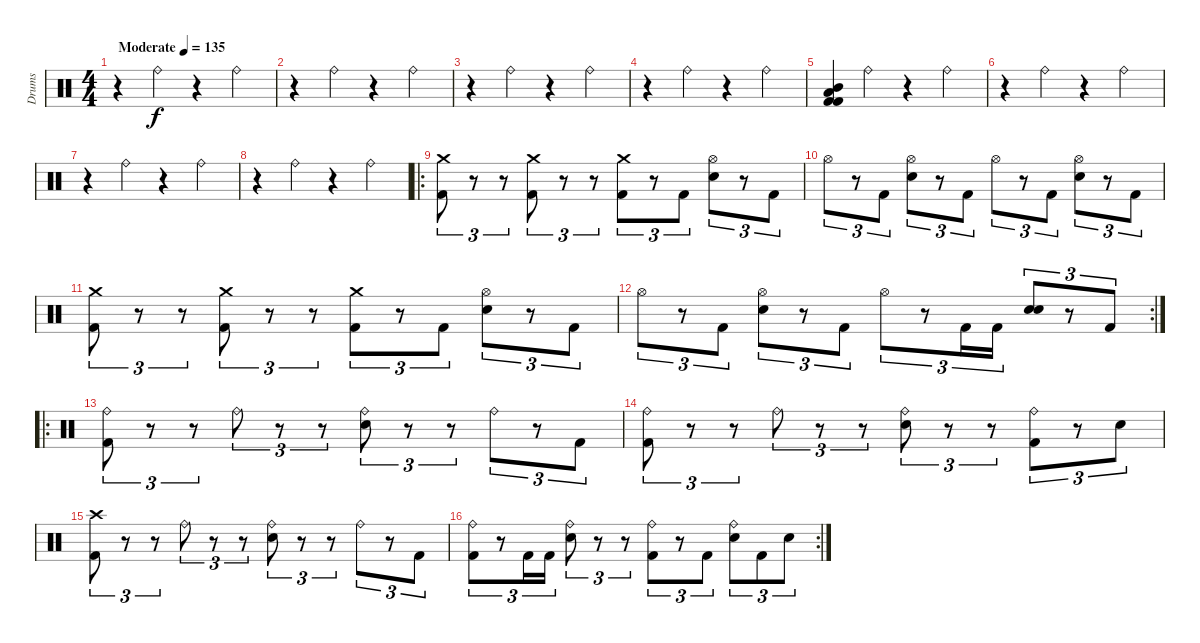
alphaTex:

\track ("Drums" "Drums") {instrument percussion}
\staff {score}
\articulation defaults
\ts (4 4)
\tempo (135 "Moderate")
\clef neutral
\ks c
r.4{dy f} "Ride (bell)".4 r.4 "Ride (bell)".4 |
r.4 "Ride (bell)".4 r.4 "Ride (bell)".4 |
r.4 "Ride (bell)".4 r.4 "Ride (bell)".4 |
r.4 "Ride (bell)".4 r.4 "Ride (bell)".4 |
("Mid Tom (hit)" "Low Tom (hit)" "Kick (hit) 2" "Kick (hit) 2").4{bu 480} "Ride (bell)".4 r.4 "Ride (bell)".4 |
r.4 "Ride (bell)".4 r.4 "Ride (bell)".4 |
r.4 "Ride (bell)".4 r.4 "Ride (bell)".4 |
r.4 "Ride (bell)".4 r.4 "Ride (bell)".4 |
\ro
("Crash medium (hit)" "Kick (hit) 2").8{tu (3 2)} r.8{tu (3 2)} r.8{tu (3 2)} ("Crash medium (hit)" "Kick (hit) 2").8{tu (3 2)} r.8{tu (3 2)} r.8{tu (3 2)} ("Crash medium (hit)" "Kick (hit) 2").8{tu (3 2)} r.8{tu (3 2)} "Kick (hit) 2".8{tu (3 2)} ("Hi-Hat (open)" "Electric Snare (hit)").8{tu (3 2)} r.8{tu (3 2)} "Kick (hit) 2".8{tu (3 2)} |
"Hi-Hat (open)".8{tu (3 2)} r.8{tu (3 2)} "Kick (hit) 2".8{tu (3 2)} ("Hi-Hat (open)" "Electric Snare (hit)").8{tu (3 2)} r.8{tu (3 2)} "Kick (hit) 2".8{tu (3 2)} "Hi-Hat (open)".8{tu (3 2)} r.8{tu (3 2)} "Kick (hit) 2".8{tu (3 2)} ("Hi-Hat (open)" "Electric Snare (hit)").8{tu (3 2)} r.8{tu (3 2)} "Kick (hit) 2".8{tu (3 2)} |
("Crash medium (hit)" "Kick (hit) 2").8{tu (3 2)} r.8{tu (3 2)} r.8{tu (3 2)} ("Crash medium (hit)" "Kick (hit) 2").8{tu (3 2)} r.8{tu (3 2)} r.8{tu (3 2)} ("Crash medium (hit)" "Kick (hit) 2").8{tu (3 2)} r.8{tu (3 2)} "Kick (hit) 2".8{tu (3 2)} ("Hi-Hat (open)" "Electric Snare (hit)").8{tu (3 2)} r.8{tu (3 2)} "Kick (hit) 2".8{tu (3 2)} |
\rc 2 "Hi-Hat (open)".8{tu (3 2)}
r.8{tu (3 2)} "Kick (hit) 2".8{tu (3 2)} ("Hi-Hat (open)" "Electric Snare (hit)").8{tu (3 2)} r.8{tu (3 2)} "Kick (hit) 2".8{tu (3 2)} "Hi-Hat (open)".8{tu (3 2)} r.8{tu (3 2)} "Kick (hit) 2".16{tu (3 2)} "Kick (hit) 2".16{tu (3 2)} ("Electric Snare (hit)" "Electric Snare (hit)").8{tu (3 2) bu 480} r.8{tu (3 2)} "Kick (hit) 2".8{tu (3 2)} |
\ro
("Ride (bell)" "Kick (hit) 2").8{tu (3 2)} r.8{tu (3 2)} r.8{tu (3 2)} "Ride (bell)".8{tu (3 2)} r.8{tu (3 2)} r.8{tu (3 2)} ("Ride (bell)" "Electric Snare (hit)").8{tu (3 2)} r.8{tu (3 2)} r.8{tu (3 2)} "Ride (bell)".8{tu (3 2)} r.8{tu (3 2)} "Kick (hit) 2".8{tu (3 2)} |
("Ride (bell)" "Kick (hit) 2").8{tu (3 2)} r.8{tu (3 2)} r.8{tu (3 2)} "Ride (bell)".8{tu (3 2)} r.8{tu (3 2)} r.8{tu (3 2)} ("Ride (bell)" "Electric Snare (hit)").8{tu (3 2)} r.8{tu (3 2)} r.8{tu (3 2)} ("Ride (bell)" "Kick (hit) 2").8{tu (3 2)} r.8{tu (3 2)} "Electric Snare (hit)".8{tu (3 2)} |
("Crash high (hit)" "Kick (hit) 2").8{tu (3 2)} r.8{tu (3 2)} r.8{tu (3 2)} "Ride (bell)".8{tu (3 2)} r.8{tu (3 2)} r.8{tu (3 2)} ("Ride (bell)" "Electric Snare (hit)").8{tu (3 2)} r.8{tu (3 2)} r.8{tu (3 2)} "Ride (bell)".8{tu (3 2)} r.8{tu (3 2)} "Kick (hit) 2".8{tu (3 2)} |
\rc 2
("Ride (bell)" "Kick (hit) 2").8{tu (3 2)} r.8{tu (3 2)} "Kick (hit) 2".16{tu (3 2)} "Kick (hit) 2".16{tu (3 2)} ("Ride (bell)" "Electric Snare (hit)").8{tu (3 2)} r.8{tu (3 2)} r.8{tu (3 2)} ("Ride (bell)" "Kick (hit) 2").8{tu (3 2)} r.8{tu (3 2)} "Kick (hit) 2".8{tu (3 2)} ("Ride (bell)" "Electric Snare (hit)").8{tu (3 2)} "Kick (hit) 2".8{tu (3 2)} "Electric Snare (hit)".8{tu (3 2)}
